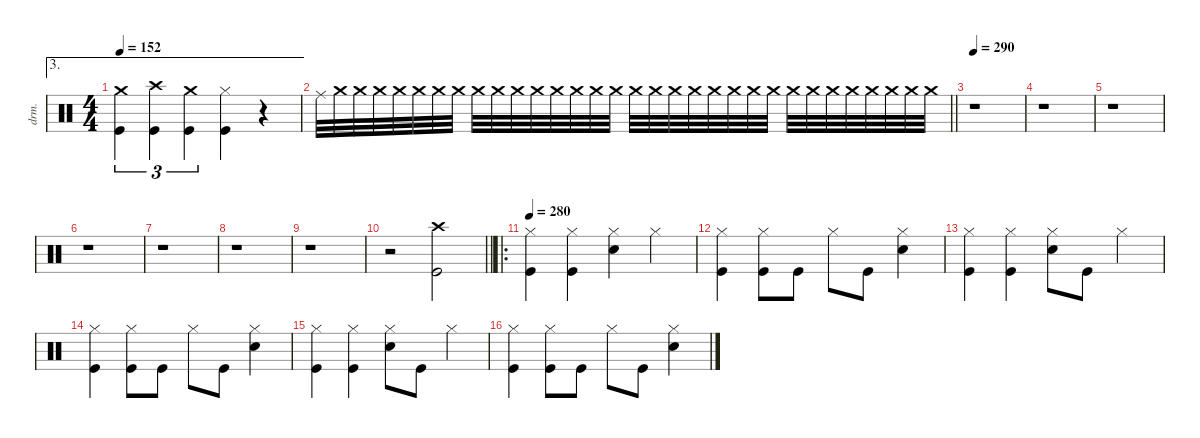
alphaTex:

\defaultSystemsLayout 4
\hideDynamics
\bracketExtendMode nobrackets
\otherSystemsTrackNameOrientation horizontal
\track ("Nick Menza" "drm.") {instrument percussion}
\staff {score}
\articulation defaults
\ae 3
\ts (4 4)
\tempo 152
\clef neutral
\ks c
("Crash medium (hit)" "Kick (hit)").4{tu (3 2) dy f beam Down} ("Crash high (hit)" "Kick (hit)").4{tu (3 2) beam Down} ("Crash medium (hit)" "Kick (hit)").4{tu (3 2) beam Down} ("Hi-Hat (closed)" "Kick (hit)").4{beam Down} r.4{beam Down} |
\barLineRight lightlight "Ride (middle)".32{dy ppp beam Down} "Crash medium (hit)".32{beam Down} "Crash medium (hit)".32{beam Down} "Crash medium (hit)".32{beam Down} "Crash medium (hit)".32{beam Down} "Crash medium (hit)".32{dy pp beam Down} "Crash medium (hit)".32{beam Down} "Crash medium (hit)".32{beam Down} "Crash medium (hit)".32{beam Down} "Crash medium (hit)".32{beam Down} "Crash medium (hit)".32{dy p beam Down} "Crash medium (hit)".32{beam Down} "Crash medium (hit)".32{beam Down} "Crash medium (hit)".32{beam Down} "Crash medium (hit)".32{beam Down} "Crash medium (hit)".32{dy mp beam Down} "Crash medium (hit)".32{beam Down} "Crash medium (hit)".32{beam Down} "Crash medium (hit)".32{beam Down} "Crash medium (hit)".32{beam Down} "Crash medium (hit)".32{beam Down} "Crash medium (hit)".32{dy mf beam Down} "Crash medium (hit)".32{beam Down} "Crash medium (hit)".32{beam Down} "Crash medium (hit)".32{beam Down} "Crash medium (hit)".32{beam Down} "Crash medium (hit)".32{beam Down} "Crash medium (hit)".32{dy f beam Down} "Crash medium (hit)".32{beam Down} "Crash medium (hit)".32{beam Down} "Crash medium (hit)".32{beam Down} "Crash medium (hit)".32{beam Down}
|
\tempo 290
r.1{beam Down} |
r.1{beam Down} |
r.1{beam Down} |
r.1{beam Down} |
r.1{beam Down} |
r.1{beam Down} |
r.1{beam Down} |
\barLineRight lightlight
r.2{beam Down} ("Crash high (hit)" "Kick (hit)").2{beam Down} |
\ro
\tempo 280
("Hi-Hat (closed)" "Kick (hit)").4{beam Down} ("Hi-Hat (closed)" "Kick (hit)").4{beam Down} ("Hi-Hat (closed)" "Snare (hit) 2").4{beam Down} "Hi-Hat (closed)".4{beam Down} |
("Hi-Hat (closed)" "Kick (hit)").4{beam Down} ("Hi-Hat (closed)" "Kick (hit)").8{beam Down} "Kick (hit)".8{beam Down} "Hi-Hat (closed)".8{beam Down} "Kick (hit)".8{beam Down} ("Hi-Hat (closed)" "Snare (hit) 2").4{beam Down} |
("Hi-Hat (closed)" "Kick (hit)").4{beam Down} ("Hi-Hat (closed)" "Kick (hit)").4{beam Down} ("Hi-Hat (closed)" "Snare (hit) 2").8{beam Down} "Kick (hit)".8{beam Down} "Hi-Hat (closed)".4{beam Down} |
("Hi-Hat (closed)" "Kick (hit)").4{beam Down} ("Hi-Hat (closed)" "Kick (hit)").8{beam Down} "Kick (hit)".8{beam Down} "Hi-Hat (closed)".8{beam Down} "Kick (hit)".8{beam Down} ("Hi-Hat (closed)" "Snare (hit) 2").4{beam Down} |
("Hi-Hat (closed)" "Kick (hit)").4{beam Down} ("Hi-Hat (closed)" "Kick (hit)").4{beam Down} ("Hi-Hat (closed)" "Snare (hit) 2").8{beam Down} "Kick (hit)".8{beam Down} "Hi-Hat (closed)".4{beam Down} |
("Hi-Hat (closed)" "Kick (hit)").4{beam Down} ("Hi-Hat (closed)" "Kick (hit)").8{beam Down} "Kick (hit)".8{beam Down} "Hi-Hat (closed)".8{beam Down} "Kick (hit)".8{beam Down} ("Hi-Hat (closed)" "Snare (hit) 2").4{beam Down}
